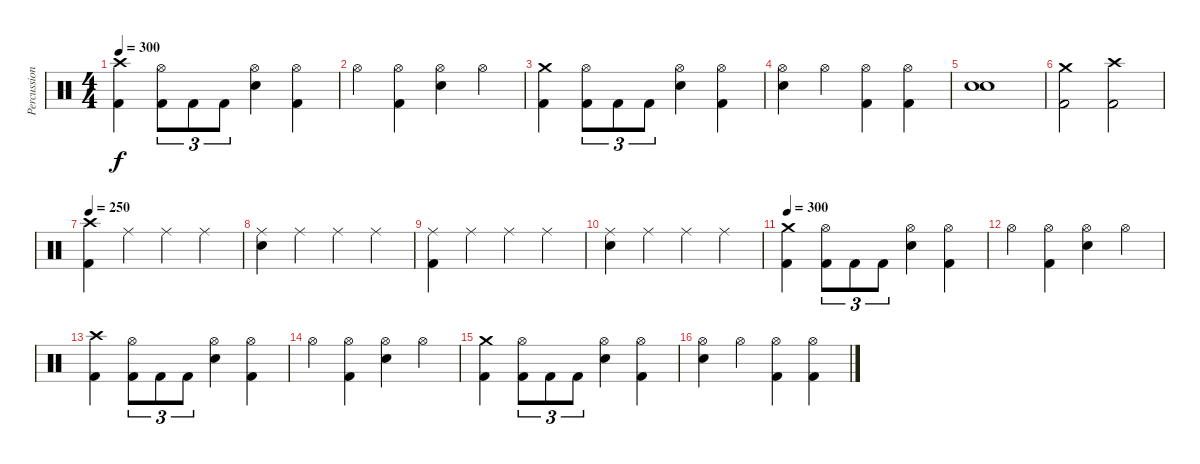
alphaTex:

\track ("Percussion" "Percussion") {instrument percussion}
\staff {score}
\articulation defaults
\ts (4 4)
\tempo 300
\clef neutral
\ks c
("Crash high (hit)" "Kick (hit) 2").4{dy f} ("Hi-Hat (open)" "Kick (hit) 2").8{tu (3 2)} "Kick (hit) 2".8{tu (3 2)} "Kick (hit) 2".8{tu (3 2)} ("Hi-Hat (open)" "Snare (hit) 2").4 ("Hi-Hat (open)" "Kick (hit) 2").4 |
"Hi-Hat (open)".4 ("Hi-Hat (open)" "Kick (hit) 2").4 ("Hi-Hat (open)" "Snare (hit) 2").4 "Hi-Hat (open)".4 |
("Crash medium (hit)" "Kick (hit) 2").4 ("Hi-Hat (open)" "Kick (hit) 2").8{tu (3 2)} "Kick (hit) 2".8{tu (3 2)} "Kick (hit) 2".8{tu (3 2)} ("Hi-Hat (open)" "Snare (hit) 2").4 ("Hi-Hat (open)" "Kick (hit) 2").4 |
("Hi-Hat (open)" "Snare (hit) 2").4 "Hi-Hat (open)".4 ("Hi-Hat (open)" "Kick (hit) 2").4 ("Hi-Hat (open)" "Kick (hit) 2").4 |
("Snare (hit) 2" "Snare (hit) 2").1 |
("Crash medium (hit)" "Kick (hit) 2").2 ("Crash high (hit)" "Kick (hit) 2").2 |
\tempo 250
("Crash high (hit)" "Kick (hit) 2").4 "Ride (middle)".4 "Ride (middle)".4 "Ride (middle)".4 |
("Ride (middle)" "Snare (hit) 2").4 "Ride (middle)".4 "Ride (middle)".4 "Ride (middle)".4 |
("Ride (middle)" "Kick (hit) 2").4 "Ride (middle)".4 "Ride (middle)".4 "Ride (middle)".4 |
("Ride (middle)" "Snare (hit) 2").4 "Ride (middle)".4 "Ride (middle)".4 "Ride (middle)".4 |
\tempo 300
("Crash medium (hit)" "Kick (hit) 2").4 ("Hi-Hat (open)" "Kick (hit) 2").8{tu (3 2)} "Kick (hit) 2".8{tu (3 2)} "Kick (hit) 2".8{tu (3 2)} ("Hi-Hat (open)" "Snare (hit) 2").4 ("Hi-Hat (open)" "Kick (hit) 2").4 |
"Hi-Hat (open)".4 ("Hi-Hat (open)" "Kick (hit) 2").4 ("Hi-Hat (open)" "Snare (hit) 2").4 "Hi-Hat (open)".4 |
("Crash high (hit)" "Kick (hit) 2").4 ("Hi-Hat (open)" "Kick (hit) 2").8{tu (3 2)} "Kick (hit) 2".8{tu (3 2)} "Kick (hit) 2".8{tu (3 2)} ("Hi-Hat (open)" "Snare (hit) 2").4 ("Hi-Hat (open)" "Kick (hit) 2").4 |
"Hi-Hat (open)".4 ("Hi-Hat (open)" "Kick (hit) 2").4 ("Hi-Hat (open)" "Snare (hit) 2").4 "Hi-Hat (open)".4 |
("Crash medium (hit)" "Kick (hit) 2").4 ("Hi-Hat (open)" "Kick (hit) 2").8{tu (3 2)} "Kick (hit) 2".8{tu (3 2)} "Kick (hit) 2".8{tu (3 2)} ("Hi-Hat (open)" "Snare (hit) 2").4 ("Hi-Hat (open)" "Kick (hit) 2").4 |
("Hi-Hat (open)" "Snare (hit) 2").4 "Hi-Hat (open)".4 ("Hi-Hat (open)" "Kick (hit) 2").4 ("Hi-Hat (open)" "Kick (hit) 2").4
